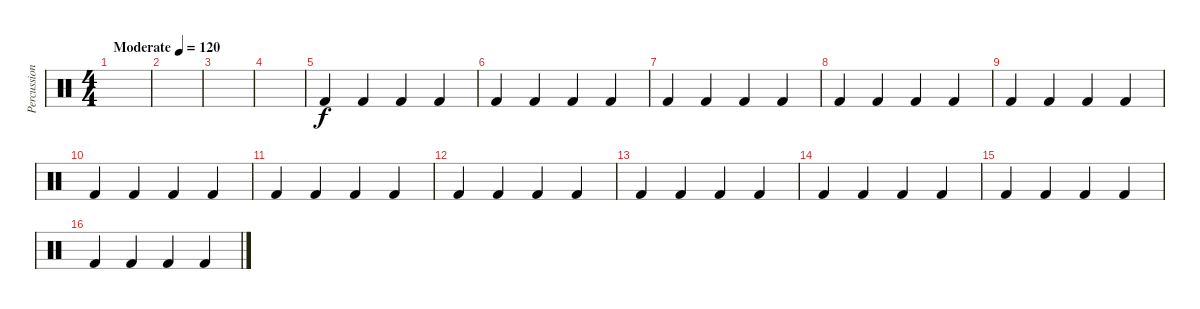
\track ("Percussions" "Percussion") {instrument percussion}
\staff {score}
\articulation defaults
\ts (4 4)
\tempo (120 "Moderate")
\clef neutral
\ks c
|
|
|
|
"Kick (hit) 2".4 "Kick (hit) 2".4 "Kick (hit) 2".4 "Kick (hit) 2".4 |
"Kick (hit) 2".4 "Kick (hit) 2".4 "Kick (hit) 2".4 "Kick (hit) 2".4 |
"Kick (hit) 2".4 "Kick (hit) 2".4 "Kick (hit) 2".4 "Kick (hit) 2".4 |
"Kick (hit) 2".4 "Kick (hit) 2".4 "Kick (hit) 2".4 "Kick (hit) 2".4 |
"Kick (hit) 2".4 "Kick (hit) 2".4 "Kick (hit) 2".4 "Kick (hit) 2".4 |
"Kick (hit) 2".4 "Kick (hit) 2".4 "Kick (hit) 2".4 "Kick (hit) 2".4 |
"Kick (hit) 2".4 "Kick (hit) 2".4 "Kick (hit) 2".4 "Kick (hit) 2".4 |
"Kick (hit) 2".4 "Kick (hit) 2".4 "Kick (hit) 2".4 "Kick (hit) 2".4 |
"Kick (hit) 2".4 "Kick (hit) 2".4 "Kick (hit) 2".4 "Kick (hit) 2".4 |
"Kick (hit) 2".4 "Kick (hit) 2".4 "Kick (hit) 2".4 "Kick (hit) 2".4 |
"Kick (hit) 2".4 "Kick (hit) 2".4 "Kick (hit) 2".4 "Kick (hit) 2".4 |
"Kick (hit) 2".4 "Kick (hit) 2".4 "Kick (hit) 2".4 "Kick (hit) 2".4
